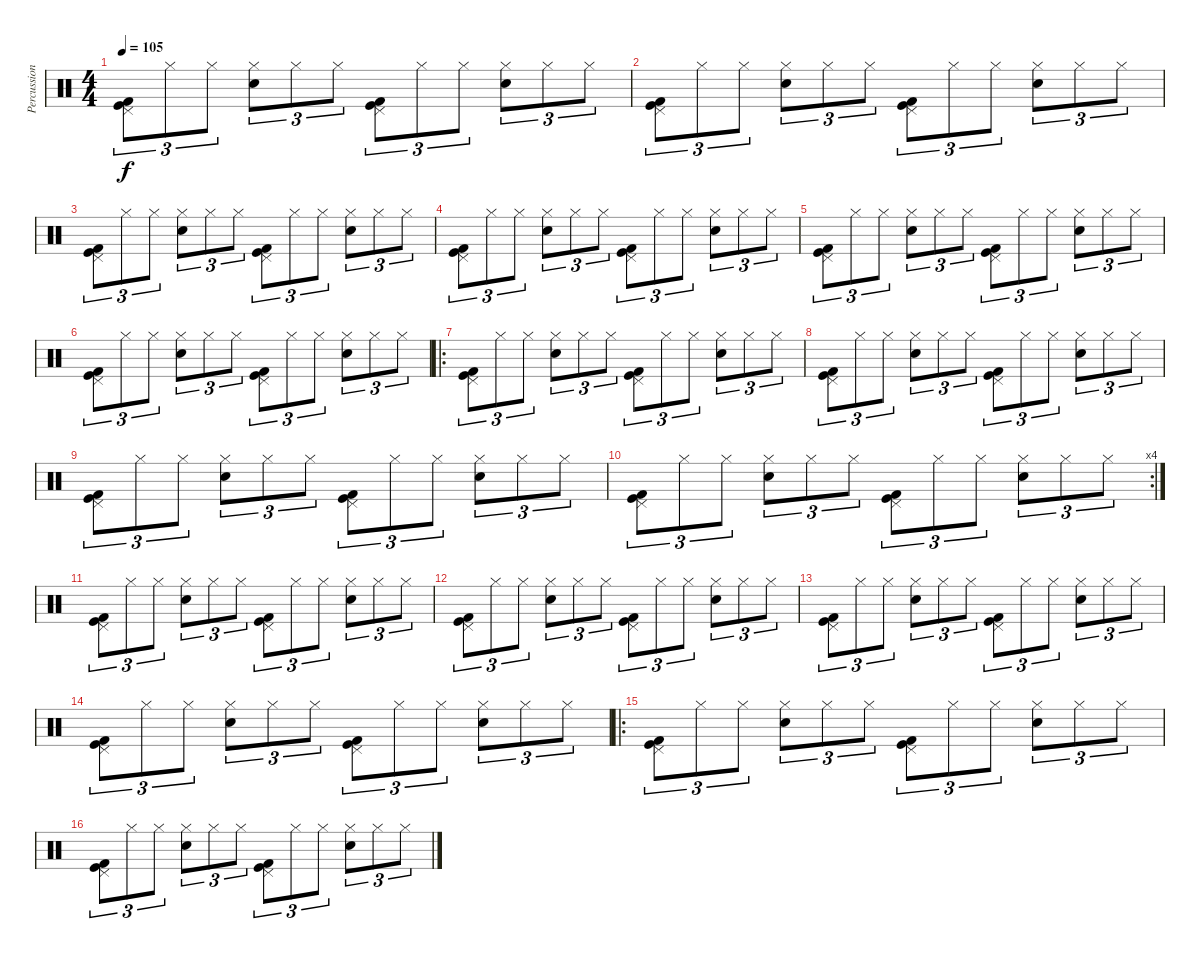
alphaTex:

\track ("Percussion" "Percussion") {instrument percussion}
\staff {score}
\articulation defaults
\ts (4 4)
\tempo 105
\clef neutral
\ks c
("Pedal Hi-Hat (hit)" "Kick (hit)" "Kick (hit) 2").8{tu (3 2) dy f} "Hi-Hat (closed)".8{tu (3 2)} "Hi-Hat (closed)".8{tu (3 2)} ("Hi-Hat (closed)" "Snare (hit) 2").8{tu (3 2)} "Hi-Hat (closed)".8{tu (3 2)} "Hi-Hat (closed)".8{tu (3 2)} ("Pedal Hi-Hat (hit)" "Kick (hit)" "Kick (hit) 2").8{tu (3 2)} "Hi-Hat (closed)".8{tu (3 2)} "Hi-Hat (closed)".8{tu (3 2)} ("Hi-Hat (closed)" "Snare (hit) 2").8{tu (3 2)} "Hi-Hat (closed)".8{tu (3 2)} "Hi-Hat (closed)".8{tu (3 2)} |
("Pedal Hi-Hat (hit)" "Kick (hit)" "Kick (hit) 2").8{tu (3 2)} "Hi-Hat (closed)".8{tu (3 2)} "Hi-Hat (closed)".8{tu (3 2)} ("Hi-Hat (closed)" "Snare (hit) 2").8{tu (3 2)} "Hi-Hat (closed)".8{tu (3 2)} "Hi-Hat (closed)".8{tu (3 2)} ("Pedal Hi-Hat (hit)" "Kick (hit)" "Kick (hit) 2").8{tu (3 2)} "Hi-Hat (closed)".8{tu (3 2)} "Hi-Hat (closed)".8{tu (3 2)} ("Hi-Hat (closed)" "Snare (hit) 2").8{tu (3 2)} "Hi-Hat (closed)".8{tu (3 2)} "Hi-Hat (closed)".8{tu (3 2)} |
("Pedal Hi-Hat (hit)" "Kick (hit)" "Kick (hit) 2").8{tu (3 2)} "Hi-Hat (closed)".8{tu (3 2)} "Hi-Hat (closed)".8{tu (3 2)} ("Hi-Hat (closed)" "Snare (hit) 2").8{tu (3 2)} "Hi-Hat (closed)".8{tu (3 2)} "Hi-Hat (closed)".8{tu (3 2)} ("Pedal Hi-Hat (hit)" "Kick (hit)" "Kick (hit) 2").8{tu (3 2)} "Hi-Hat (closed)".8{tu (3 2)} "Hi-Hat (closed)".8{tu (3 2)} ("Hi-Hat (closed)" "Snare (hit) 2").8{tu (3 2)} "Hi-Hat (closed)".8{tu (3 2)} "Hi-Hat (closed)".8{tu (3 2)} |
("Pedal Hi-Hat (hit)" "Kick (hit)" "Kick (hit) 2").8{tu (3 2)} "Hi-Hat (closed)".8{tu (3 2)} "Hi-Hat (closed)".8{tu (3 2)} ("Hi-Hat (closed)" "Snare (hit) 2").8{tu (3 2)} "Hi-Hat (closed)".8{tu (3 2)} "Hi-Hat (closed)".8{tu (3 2)} ("Pedal Hi-Hat (hit)" "Kick (hit)" "Kick (hit) 2").8{tu (3 2)} "Hi-Hat (closed)".8{tu (3 2)} "Hi-Hat (closed)".8{tu (3 2)} ("Hi-Hat (closed)" "Snare (hit) 2").8{tu (3 2)} "Hi-Hat (closed)".8{tu (3 2)} "Hi-Hat (closed)".8{tu (3 2)} |
("Pedal Hi-Hat (hit)" "Kick (hit)" "Kick (hit) 2").8{tu (3 2)} "Hi-Hat (closed)".8{tu (3 2)} "Hi-Hat (closed)".8{tu (3 2)} ("Hi-Hat (closed)" "Snare (hit) 2").8{tu (3 2)} "Hi-Hat (closed)".8{tu (3 2)} "Hi-Hat (closed)".8{tu (3 2)} ("Pedal Hi-Hat (hit)" "Kick (hit)" "Kick (hit) 2").8{tu (3 2)} "Hi-Hat (closed)".8{tu (3 2)} "Hi-Hat (closed)".8{tu (3 2)} ("Hi-Hat (closed)" "Snare (hit) 2").8{tu (3 2)} "Hi-Hat (closed)".8{tu (3 2)} "Hi-Hat (closed)".8{tu (3 2)} |
("Pedal Hi-Hat (hit)" "Kick (hit)" "Kick (hit) 2").8{tu (3 2)} "Hi-Hat (closed)".8{tu (3 2)} "Hi-Hat (closed)".8{tu (3 2)} ("Hi-Hat (closed)" "Snare (hit) 2").8{tu (3 2)} "Hi-Hat (closed)".8{tu (3 2)} "Hi-Hat (closed)".8{tu (3 2)} ("Pedal Hi-Hat (hit)" "Kick (hit)" "Kick (hit) 2").8{tu (3 2)} "Hi-Hat (closed)".8{tu (3 2)} "Hi-Hat (closed)".8{tu (3 2)} ("Hi-Hat (closed)" "Snare (hit) 2").8{tu (3 2)} "Hi-Hat (closed)".8{tu (3 2)} "Hi-Hat (closed)".8{tu (3 2)} |
\ro
("Pedal Hi-Hat (hit)" "Kick (hit)" "Kick (hit) 2").8{tu (3 2)} "Hi-Hat (closed)".8{tu (3 2)} "Hi-Hat (closed)".8{tu (3 2)} ("Hi-Hat (closed)" "Snare (hit) 2").8{tu (3 2)} "Hi-Hat (closed)".8{tu (3 2)} "Hi-Hat (closed)".8{tu (3 2)} ("Pedal Hi-Hat (hit)" "Kick (hit)" "Kick (hit) 2").8{tu (3 2)} "Hi-Hat (closed)".8{tu (3 2)} "Hi-Hat (closed)".8{tu (3 2)} ("Hi-Hat (closed)" "Snare (hit) 2").8{tu (3 2)} "Hi-Hat (closed)".8{tu (3 2)} "Hi-Hat (closed)".8{tu (3 2)} |
("Pedal Hi-Hat (hit)" "Kick (hit)" "Kick (hit) 2").8{tu (3 2)} "Hi-Hat (closed)".8{tu (3 2)} "Hi-Hat (closed)".8{tu (3 2)} ("Hi-Hat (closed)" "Snare (hit) 2").8{tu (3 2)} "Hi-Hat (closed)".8{tu (3 2)} "Hi-Hat (closed)".8{tu (3 2)} ("Pedal Hi-Hat (hit)" "Kick (hit)" "Kick (hit) 2").8{tu (3 2)} "Hi-Hat (closed)".8{tu (3 2)} "Hi-Hat (closed)".8{tu (3 2)} ("Hi-Hat (closed)" "Snare (hit) 2").8{tu (3 2)} "Hi-Hat (closed)".8{tu (3 2)} "Hi-Hat (closed)".8{tu (3 2)} |
("Pedal Hi-Hat (hit)" "Kick (hit)" "Kick (hit) 2").8{tu (3 2)} "Hi-Hat (closed)".8{tu (3 2)} "Hi-Hat (closed)".8{tu (3 2)} ("Hi-Hat (closed)" "Snare (hit) 2").8{tu (3 2)} "Hi-Hat (closed)".8{tu (3 2)} "Hi-Hat (closed)".8{tu (3 2)} ("Pedal Hi-Hat (hit)" "Kick (hit)" "Kick (hit) 2").8{tu (3 2)} "Hi-Hat (closed)".8{tu (3 2)} "Hi-Hat (closed)".8{tu (3 2)} ("Hi-Hat (closed)" "Snare (hit) 2").8{tu (3 2)} "Hi-Hat (closed)".8{tu (3 2)} "Hi-Hat (closed)".8{tu (3 2)} |
\rc 4
("Pedal Hi-Hat (hit)" "Kick (hit)" "Kick (hit) 2").8{tu (3 2)} "Hi-Hat (closed)".8{tu (3 2)} "Hi-Hat (closed)".8{tu (3 2)} ("Hi-Hat (closed)" "Snare (hit) 2").8{tu (3 2)} "Hi-Hat (closed)".8{tu (3 2)} "Hi-Hat (closed)".8{tu (3 2)} ("Pedal Hi-Hat (hit)" "Kick (hit)" "Kick (hit) 2").8{tu (3 2)} "Hi-Hat (closed)".8{tu (3 2)} "Hi-Hat (closed)".8{tu (3 2)} ("Hi-Hat (closed)" "Snare (hit) 2").8{tu (3 2)} "Hi-Hat (closed)".8{tu (3 2)} "Hi-Hat (closed)".8{tu (3 2)} |
("Pedal Hi-Hat (hit)" "Kick (hit)" "Kick (hit) 2").8{tu (3 2)} "Hi-Hat (closed)".8{tu (3 2)} "Hi-Hat (closed)".8{tu (3 2)} ("Hi-Hat (closed)" "Snare (hit) 2").8{tu (3 2)} "Hi-Hat (closed)".8{tu (3 2)} "Hi-Hat (closed)".8{tu (3 2)} ("Pedal Hi-Hat (hit)" "Kick (hit)" "Kick (hit) 2").8{tu (3 2)} "Hi-Hat (closed)".8{tu (3 2)} "Hi-Hat (closed)".8{tu (3 2)} ("Hi-Hat (closed)" "Snare (hit) 2").8{tu (3 2)} "Hi-Hat (closed)".8{tu (3 2)} "Hi-Hat (closed)".8{tu (3 2)} |
("Pedal Hi-Hat (hit)" "Kick (hit)" "Kick (hit) 2").8{tu (3 2)} "Hi-Hat (closed)".8{tu (3 2)} "Hi-Hat (closed)".8{tu (3 2)} ("Hi-Hat (closed)" "Snare (hit) 2").8{tu (3 2)} "Hi-Hat (closed)".8{tu (3 2)} "Hi-Hat (closed)".8{tu (3 2)} ("Pedal Hi-Hat (hit)" "Kick (hit)" "Kick (hit) 2").8{tu (3 2)} "Hi-Hat (closed)".8{tu (3 2)} "Hi-Hat (closed)".8{tu (3 2)} ("Hi-Hat (closed)" "Snare (hit) 2").8{tu (3 2)} "Hi-Hat (closed)".8{tu (3 2)} "Hi-Hat (closed)".8{tu (3 2)} |
("Pedal Hi-Hat (hit)" "Kick (hit)" "Kick (hit) 2").8{tu (3 2)} "Hi-Hat (closed)".8{tu (3 2)} "Hi-Hat (closed)".8{tu (3 2)} ("Hi-Hat (closed)" "Snare (hit) 2").8{tu (3 2)} "Hi-Hat (closed)".8{tu (3 2)} "Hi-Hat (closed)".8{tu (3 2)} ("Pedal Hi-Hat (hit)" "Kick (hit)" "Kick (hit) 2").8{tu (3 2)} "Hi-Hat (closed)".8{tu (3 2)} "Hi-Hat (closed)".8{tu (3 2)} ("Hi-Hat (closed)" "Snare (hit) 2").8{tu (3 2)} "Hi-Hat (closed)".8{tu (3 2)} "Hi-Hat (closed)".8{tu (3 2)} |
("Pedal Hi-Hat (hit)" "Kick (hit)" "Kick (hit) 2").8{tu (3 2)} "Hi-Hat (closed)".8{tu (3 2)} "Hi-Hat (closed)".8{tu (3 2)} ("Hi-Hat (closed)" "Snare (hit) 2").8{tu (3 2)} "Hi-Hat (closed)".8{tu (3 2)} "Hi-Hat (closed)".8{tu (3 2)} ("Pedal Hi-Hat (hit)" "Kick (hit)" "Kick (hit) 2").8{tu (3 2)} "Hi-Hat (closed)".8{tu (3 2)} "Hi-Hat (closed)".8{tu (3 2)} ("Hi-Hat (closed)" "Snare (hit) 2").8{tu (3 2)} "Hi-Hat (closed)".8{tu (3 2)} "Hi-Hat (closed)".8{tu (3 2)} |
\ro
("Pedal Hi-Hat (hit)" "Kick (hit)" "Kick (hit) 2").8{tu (3 2)} "Hi-Hat (closed)".8{tu (3 2)} "Hi-Hat (closed)".8{tu (3 2)} ("Hi-Hat (closed)" "Snare (hit) 2").8{tu (3 2)} "Hi-Hat (closed)".8{tu (3 2)} "Hi-Hat (closed)".8{tu (3 2)} ("Pedal Hi-Hat (hit)" "Kick (hit)" "Kick (hit) 2").8{tu (3 2)} "Hi-Hat (closed)".8{tu (3 2)} "Hi-Hat (closed)".8{tu (3 2)} ("Hi-Hat (closed)" "Snare (hit) 2").8{tu (3 2)} "Hi-Hat (closed)".8{tu (3 2)} "Hi-Hat (closed)".8{tu (3 2)} |
("Pedal Hi-Hat (hit)" "Kick (hit)" "Kick (hit) 2").8{tu (3 2)} "Hi-Hat (closed)".8{tu (3 2)} "Hi-Hat (closed)".8{tu (3 2)} ("Hi-Hat (closed)" "Snare (hit) 2").8{tu (3 2)} "Hi-Hat (closed)".8{tu (3 2)} "Hi-Hat (closed)".8{tu (3 2)} ("Pedal Hi-Hat (hit)" "Kick (hit)" "Kick (hit) 2").8{tu (3 2)} "Hi-Hat (closed)".8{tu (3 2)} "Hi-Hat (closed)".8{tu (3 2)} ("Hi-Hat (closed)" "Snare (hit) 2").8{tu (3 2)} "Hi-Hat (closed)".8{tu (3 2)} "Hi-Hat (closed)".8{tu (3 2)}
